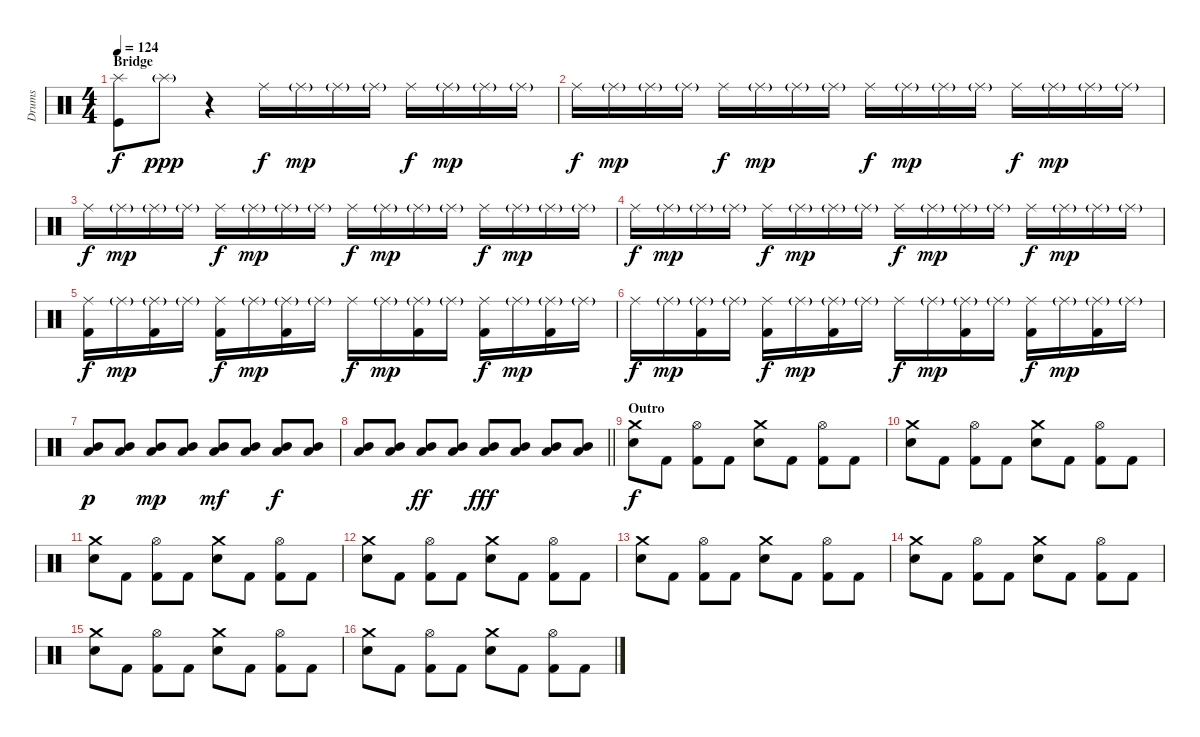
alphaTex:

\track ("Drums" "Drums") {instrument percussion}
\staff {score}
\articulation defaults
\ts (4 4)
\section ("" "Bridge")
\tempo 124
\clef neutral
\ks c
("Splash (hit)" "Kick (hit)").8{dy f} "Splash (hit)"{g}.8{dy ppp} r.4 "Ride (middle)".16{dy f} "Ride (middle)"{g}.16{dy mp} "Ride (middle)"{g}.16 "Ride (middle)"{g}.16 "Ride (middle)".16{dy f} "Ride (middle)"{g}.16{dy mp} "Ride (middle)"{g}.16 "Ride (middle)"{g}.16 |
"Ride (middle)".16{dy f} "Ride (middle)"{g}.16{dy mp} "Ride (middle)"{g}.16 "Ride (middle)"{g}.16 "Ride (middle)".16{dy f} "Ride (middle)"{g}.16{dy mp} "Ride (middle)"{g}.16 "Ride (middle)"{g}.16 "Ride (middle)".16{dy f} "Ride (middle)"{g}.16{dy mp} "Ride (middle)"{g}.16 "Ride (middle)"{g}.16 "Ride (middle)".16{dy f} "Ride (middle)"{g}.16{dy mp} "Ride (middle)"{g}.16 "Ride (middle)"{g}.16 |
"Ride (middle)".16{dy f} "Ride (middle)"{g}.16{dy mp} "Ride (middle)"{g}.16 "Ride (middle)"{g}.16 "Ride (middle)".16{dy f} "Ride (middle)"{g}.16{dy mp} "Ride (middle)"{g}.16 "Ride (middle)"{g}.16 "Ride (middle)".16{dy f} "Ride (middle)"{g}.16{dy mp} "Ride (middle)"{g}.16 "Ride (middle)"{g}.16 "Ride (middle)".16{dy f} "Ride (middle)"{g}.16{dy mp} "Ride (middle)"{g}.16 "Ride (middle)"{g}.16 |
"Ride (middle)".16{dy f} "Ride (middle)"{g}.16{dy mp} "Ride (middle)"{g}.16 "Ride (middle)"{g}.16 "Ride (middle)".16{dy f} "Ride (middle)"{g}.16{dy mp} "Ride (middle)"{g}.16 "Ride (middle)"{g}.16 "Ride (middle)".16{dy f} "Ride (middle)"{g}.16{dy mp} "Ride (middle)"{g}.16 "Ride (middle)"{g}.16 "Ride (middle)".16{dy f} "Ride (middle)"{g}.16{dy mp} "Ride (middle)"{g}.16 "Ride (middle)"{g}.16 |
("Ride (middle)" "Kick (hit) 2").16{dy f} "Ride (middle)"{g}.16{dy mp} ("Ride (middle)"{g} "Kick (hit) 2").16 "Ride (middle)"{g}.16 ("Ride (middle)" "Kick (hit) 2").16{dy f} "Ride (middle)"{g}.16{dy mp} ("Ride (middle)"{g} "Kick (hit) 2").16 "Ride (middle)"{g}.16 "Ride (middle)".16{dy f} "Ride (middle)"{g}.16{dy mp} ("Ride (middle)"{g} "Kick (hit) 2").16 "Ride (middle)"{g}.16 ("Ride (middle)" "Kick (hit) 2").16{dy f} "Ride (middle)"{g}.16{dy mp} ("Ride (middle)"{g} "Kick (hit) 2").16 "Ride (middle)"{g}.16 |
"Ride (middle)".16{dy f} "Ride (middle)"{g}.16{dy mp} ("Ride (middle)"{g} "Kick (hit) 2").16 "Ride (middle)"{g}.16 ("Ride (middle)" "Kick (hit) 2").16{dy f} "Ride (middle)"{g}.16{dy mp} ("Ride (middle)"{g} "Kick (hit) 2").16 "Ride (middle)"{g}.16 "Ride (middle)".16{dy f} "Ride (middle)"{g}.16{dy mp} ("Ride (middle)"{g} "Kick (hit) 2").16 "Ride (middle)"{g}.16 ("Ride (middle)" "Kick (hit) 2").16{dy f} "Ride (middle)"{g}.16{dy mp} ("Ride (middle)"{g} "Kick (hit) 2").16 "Ride (middle)"{g}.16 |
("Mid Tom (hit)" "Low Tom (hit)").8{dy p} ("Mid Tom (hit)" "Low Tom (hit)").8 ("Mid Tom (hit)" "Low Tom (hit)").8{dy mp} ("Mid Tom (hit)" "Low Tom (hit)").8 ("Mid Tom (hit)" "Low Tom (hit)").8{dy mf} ("Mid Tom (hit)" "Low Tom (hit)").8 ("Mid Tom (hit)" "Low Tom (hit)").8{dy f} ("Mid Tom (hit)" "Low Tom (hit)").8 |
\barLineRight lightlight
("Mid Tom (hit)" "Low Tom (hit)").8 ("Mid Tom (hit)" "Low Tom (hit)").8 ("Mid Tom (hit)" "Low Tom (hit)").8{dy ff} ("Mid Tom (hit)" "Low Tom (hit)").8 ("Mid Tom (hit)" "Low Tom (hit)").8{dy fff} ("Mid Tom (hit)" "Low Tom (hit)").8 ("Mid Tom (hit)" "Low Tom (hit)").8 ("Mid Tom (hit)" "Low Tom (hit)").8 |
\section ("" "Outro")
("Crash medium (hit)" "Electric Snare (hit)").8{dy f} "Kick (hit) 2".8 ("Hi-Hat (open)" "Kick (hit) 2").8 "Kick (hit) 2".8 ("Crash medium (hit)" "Electric Snare (hit)").8 "Kick (hit) 2".8 ("Hi-Hat (open)" "Kick (hit) 2").8 "Kick (hit) 2".8 |
("Crash medium (hit)" "Electric Snare (hit)").8 "Kick (hit) 2".8 ("Hi-Hat (open)" "Kick (hit) 2").8 "Kick (hit) 2".8 ("Crash medium (hit)" "Electric Snare (hit)").8 "Kick (hit) 2".8 ("Hi-Hat (open)" "Kick (hit) 2").8 "Kick (hit) 2".8 |
("Crash medium (hit)" "Electric Snare (hit)").8 "Kick (hit) 2".8 ("Hi-Hat (open)" "Kick (hit) 2").8 "Kick (hit) 2".8 ("Crash medium (hit)" "Electric Snare (hit)").8 "Kick (hit) 2".8 ("Hi-Hat (open)" "Kick (hit) 2").8 "Kick (hit) 2".8 |
("Crash medium (hit)" "Electric Snare (hit)").8 "Kick (hit) 2".8 ("Hi-Hat (open)" "Kick (hit) 2").8 "Kick (hit) 2".8 ("Crash medium (hit)" "Electric Snare (hit)").8 "Kick (hit) 2".8 ("Hi-Hat (open)" "Kick (hit) 2").8 "Kick (hit) 2".8 |
("Crash medium (hit)" "Electric Snare (hit)").8 "Kick (hit) 2".8 ("Hi-Hat (open)" "Kick (hit) 2").8 "Kick (hit) 2".8 ("Crash medium (hit)" "Electric Snare (hit)").8 "Kick (hit) 2".8 ("Hi-Hat (open)" "Kick (hit) 2").8 "Kick (hit) 2".8 |
("Crash medium (hit)" "Electric Snare (hit)").8 "Kick (hit) 2".8 ("Hi-Hat (open)" "Kick (hit) 2").8 "Kick (hit) 2".8 ("Crash medium (hit)" "Electric Snare (hit)").8 "Kick (hit) 2".8 ("Hi-Hat (open)" "Kick (hit) 2").8 "Kick (hit) 2".8 |
("Crash medium (hit)" "Electric Snare (hit)").8 "Kick (hit) 2".8 ("Hi-Hat (open)" "Kick (hit) 2").8 "Kick (hit) 2".8 ("Crash medium (hit)" "Electric Snare (hit)").8 "Kick (hit) 2".8 ("Hi-Hat (open)" "Kick (hit) 2").8 "Kick (hit) 2".8 |
("Crash medium (hit)" "Electric Snare (hit)").8 "Kick (hit) 2".8 ("Hi-Hat (open)" "Kick (hit) 2").8 "Kick (hit) 2".8 ("Crash medium (hit)" "Electric Snare (hit)").8 "Kick (hit) 2".8 ("Hi-Hat (open)" "Kick (hit) 2").8 "Kick (hit) 2".8
